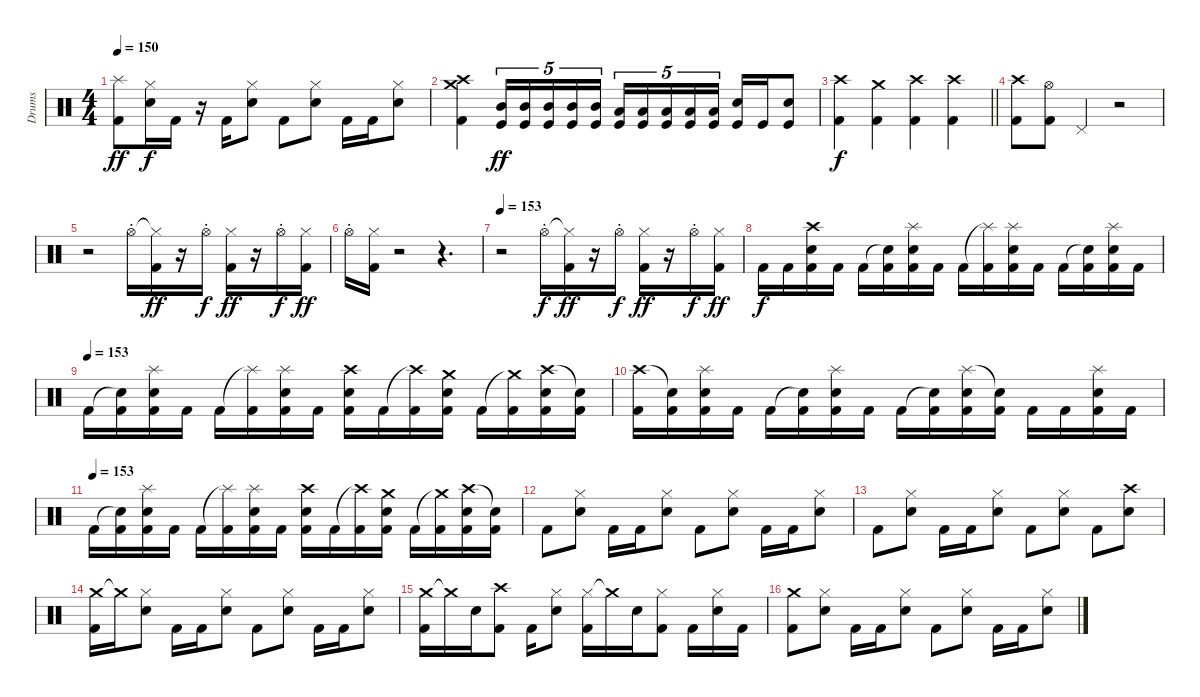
\track ("Drums" "Drums") {instrument percussion}
\staff {score}
\articulation defaults
\ts (4 4)
\tempo 150
\clef neutral
\ks c
("Splash (hit)" "Kick (hit) 2").8{dy ff} ("Hi-Hat (closed)" "Electric Snare (hit)").16{dy f} "Kick (hit) 2".16 r.16 "Kick (hit) 2".16 ("Hi-Hat (closed)" "Electric Snare (hit)").8 "Kick (hit) 2".8 ("Hi-Hat (closed)" "Electric Snare (hit)").8 "Kick (hit) 2".16 "Kick (hit) 2".16 ("Hi-Hat (closed)" "Electric Snare (hit)").8 |
("Crash high (hit)" "Crash medium (hit)" "Kick (hit) 2").4 ("Mid Tom (hit)" "Kick (hit)").16{tu (5 4) dy ff} ("Mid Tom (hit)" "Kick (hit)").16{tu (5 4)} ("Mid Tom (hit)" "Kick (hit)").16{tu (5 4)} ("Mid Tom (hit)" "Kick (hit)").16{tu (5 4)} ("Mid Tom (hit)" "Kick (hit)").16{tu (5 4)} ("Low Tom (hit)" "Kick (hit)").16{tu (5 4)} ("Low Tom (hit)" "Kick (hit)").16{tu (5 4)} ("Low Tom (hit)" "Kick (hit)").16{tu (5 4)} ("Low Tom (hit)" "Kick (hit)").16{tu (5 4)} ("Low Tom (hit)" "Kick (hit)").16{tu (5 4)} ("Electric Snare (hit)" "Kick (hit)").16 "Kick (hit)".16 ("Electric Snare (hit)" "Kick (hit)").8 |
\barLineRight lightlight
("Crash high (hit)" "Kick (hit) 2").4{dy f} ("Crash medium (hit)" "Kick (hit) 2").4 ("Crash high (hit)" "Kick (hit) 2").4 ("Crash high (hit)" "Kick (hit) 2").4 |
\section ("" "")
("Crash high (hit)" "Kick (hit) 2").8 ("Hi-Hat (open)" "Kick (hit) 2").8 "Pedal Hi-Hat (hit)".4 r.2 |
r.2 "Hi-Hat (open)"{st}.16 ("Hi-Hat (closed)"{t} "Kick (hit) 2").16{dy ff} r.16 "Hi-Hat (open)"{st}.16{dy f} ("Hi-Hat (closed)" "Kick (hit) 2").16{dy ff} r.16 "Hi-Hat (open)"{st}.16{dy f} ("Hi-Hat (closed)" "Kick (hit) 2").16{dy ff} |
"Hi-Hat (open)"{st}.16 ("Hi-Hat (closed)" "Kick (hit) 2").16 r.2 r.4{d} |
\tempo 153
r.2 "Hi-Hat (open)"{st}.16{dy f} ("Hi-Hat (closed)"{t} "Kick (hit) 2").16{dy ff} r.16 "Hi-Hat (open)"{st}.16{dy f} ("Hi-Hat (closed)" "Kick (hit) 2").16{dy ff} r.16 "Hi-Hat (open)"{st}.16{dy f} ("Hi-Hat (closed)" "Kick (hit) 2").16{dy ff} |
"Kick (hit) 2".16{dy f} "Kick (hit) 2".16 ("Crash high (hit)" "Electric Snare (hit)" "Kick (hit) 2").16 "Kick (hit) 2".16 "Kick (hit) 2".16 ("Snare (hit)"{t} "Kick (hit) 2").16 ("Splash (hit)" "Electric Snare (hit)" "Kick (hit) 2").16 "Kick (hit) 2".16 "Kick (hit) 2".16 ("Splash (hit)"{t} "Kick (hit) 2").16 ("Splash (hit)" "Electric Snare (hit)" "Kick (hit) 2").16 "Kick (hit) 2".16 "Kick (hit) 2".16 ("Snare (hit)"{t} "Kick (hit) 2").16 ("Splash (hit)" "Electric Snare (hit)" "Kick (hit) 2").16 "Kick (hit) 2".16 |
\tempo (153)
"Kick (hit) 2".16 ("Snare (hit)"{t} "Kick (hit) 2").16 ("Splash (hit)" "Electric Snare (hit)" "Kick (hit) 2").16 "Kick (hit) 2".16 "Kick (hit) 2".16 ("Splash (hit)"{t} "Kick (hit) 2").16 ("Splash (hit)" "Electric Snare (hit)" "Kick (hit) 2").16 "Kick (hit) 2".16 ("Crash high (hit)" "Electric Snare (hit)" "Kick (hit) 2").16 "Kick (hit) 2".16 ("Crash high (hit)"{t} "Kick (hit) 2").16 ("Crash medium (hit)" "Electric Snare (hit)" "Kick (hit) 2").16 "Kick (hit) 2".16 ("Crash medium (hit)"{t} "Kick (hit) 2").16 ("Crash high (hit)" "Electric Snare (hit)" "Kick (hit) 2").16 ("Snare (hit)"{t} "Kick (hit) 2").16 |
("Crash high (hit)" "Kick (hit) 2").16 ("Snare (hit)"{t} "Kick (hit) 2").16 ("Splash (hit)" "Electric Snare (hit)" "Kick (hit) 2").16 "Kick (hit) 2".16 "Kick (hit) 2".16 ("Snare (hit)"{t} "Kick (hit) 2").16 ("Splash (hit)" "Electric Snare (hit)" "Kick (hit) 2").16 "Kick (hit) 2".16 "Kick (hit) 2".16 ("Snare (hit)"{t} "Kick (hit) 2").16 ("Splash (hit)" "Electric Snare (hit)" "Kick (hit) 2").16 ("Snare (hit)"{t} "Kick (hit) 2").16 "Kick (hit) 2".16 "Kick (hit) 2".16 ("Splash (hit)" "Electric Snare (hit)" "Kick (hit) 2").16 "Kick (hit) 2".16 |
\tempo (153)
"Kick (hit) 2".16 ("Snare (hit)"{t} "Kick (hit) 2").16 ("Splash (hit)" "Electric Snare (hit)" "Kick (hit) 2").16 "Kick (hit) 2".16 "Kick (hit) 2".16 ("Splash (hit)"{t} "Kick (hit) 2").16 ("Splash (hit)" "Electric Snare (hit)" "Kick (hit) 2").16 "Kick (hit) 2".16 ("Crash high (hit)" "Electric Snare (hit)" "Kick (hit) 2").16 "Kick (hit) 2".16 ("Crash high (hit)"{t} "Kick (hit) 2").16 ("Crash medium (hit)" "Electric Snare (hit)" "Kick (hit) 2").16 "Kick (hit) 2".16 ("Crash medium (hit)"{t} "Kick (hit) 2").16 ("Crash high (hit)" "Electric Snare (hit)" "Kick (hit) 2").16 ("Snare (hit)"{t} "Kick (hit) 2").16 |
"Kick (hit) 2".8 ("Hi-Hat (closed)" "Electric Snare (hit)").8 "Kick (hit) 2".16 "Kick (hit) 2".16 ("Hi-Hat (closed)" "Electric Snare (hit)").8 "Kick (hit) 2".8 ("Hi-Hat (closed)" "Electric Snare (hit)").8 "Kick (hit) 2".16 "Kick (hit) 2".16 ("Hi-Hat (closed)" "Electric Snare (hit)").8 |
"Kick (hit) 2".8 ("Hi-Hat (closed)" "Electric Snare (hit)").8 "Kick (hit) 2".16 "Kick (hit) 2".16 ("Hi-Hat (closed)" "Electric Snare (hit)").8 "Kick (hit) 2".8 ("Hi-Hat (closed)" "Electric Snare (hit)").8 "Kick (hit) 2".8 ("Crash high (hit)" "Electric Snare (hit)").8 |
("Crash medium (hit)" "Kick (hit) 2").16 "Crash medium (hit)"{t}.16 ("Hi-Hat (closed)" "Electric Snare (hit)").8 "Kick (hit) 2".16 "Kick (hit) 2".16 ("Hi-Hat (closed)" "Electric Snare (hit)").8 "Kick (hit) 2".8 ("Hi-Hat (closed)" "Electric Snare (hit)").8 "Kick (hit) 2".16 "Kick (hit) 2".16 ("Hi-Hat (closed)" "Electric Snare (hit)").8 |
("Crash medium (hit)" "Kick (hit) 2").16 "Crash medium (hit)"{t}.16 "Electric Snare (hit)".16 ("Crash high (hit)" "Kick (hit) 2").8 "Kick (hit) 2".16 ("Hi-Hat (closed)" "Electric Snare (hit)").8 ("Hi-Hat (closed)" "Kick (hit) 2").16 "Crash medium (hit)"{t}.16 "Electric Snare (hit)".16 ("Hi-Hat (closed)" "Kick (hit) 2").8 "Kick (hit) 2".16 ("Hi-Hat (closed)" "Electric Snare (hit)").16 "Kick (hit) 2".16 |
("Crash medium (hit)" "Kick (hit) 2").8 ("Hi-Hat (closed)" "Electric Snare (hit)").8 "Kick (hit) 2".16 "Kick (hit) 2".16 ("Hi-Hat (closed)" "Electric Snare (hit)").8 "Kick (hit) 2".8 ("Hi-Hat (closed)" "Electric Snare (hit)").8 "Kick (hit) 2".16 "Kick (hit) 2".16 ("Hi-Hat (closed)" "Electric Snare (hit)").8
